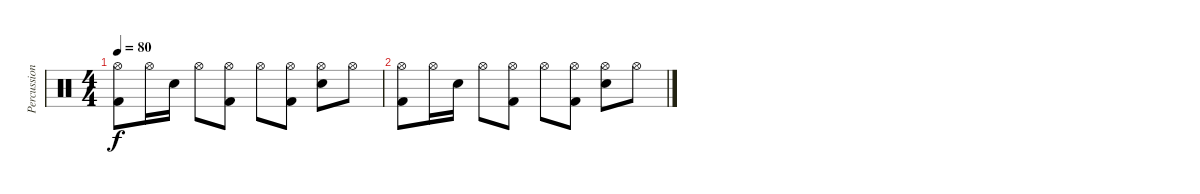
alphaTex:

\track ("Percussion" "Percussion") {instrument percussion}
\staff {score}
\articulation defaults
\ts (4 4)
\tempo 80
\clef neutral
\ks c
("Hi-Hat (open)" "Kick (hit) 2").8{dy f} "Hi-Hat (open)".16 "Snare (hit) 2".16 "Hi-Hat (open)".8 ("Hi-Hat (open)" "Kick (hit) 2").8 "Hi-Hat (open)".8 ("Hi-Hat (open)" "Kick (hit) 2").8 ("Hi-Hat (open)" "Snare (hit) 2").8 "Hi-Hat (open)".8 |
("Hi-Hat (open)" "Kick (hit) 2").8 "Hi-Hat (open)".16 "Snare (hit) 2".16 "Hi-Hat (open)".8 ("Hi-Hat (open)" "Kick (hit) 2").8 "Hi-Hat (open)".8 ("Hi-Hat (open)" "Kick (hit) 2").8 ("Hi-Hat (open)" "Snare (hit) 2").8 "Hi-Hat (open)".8
